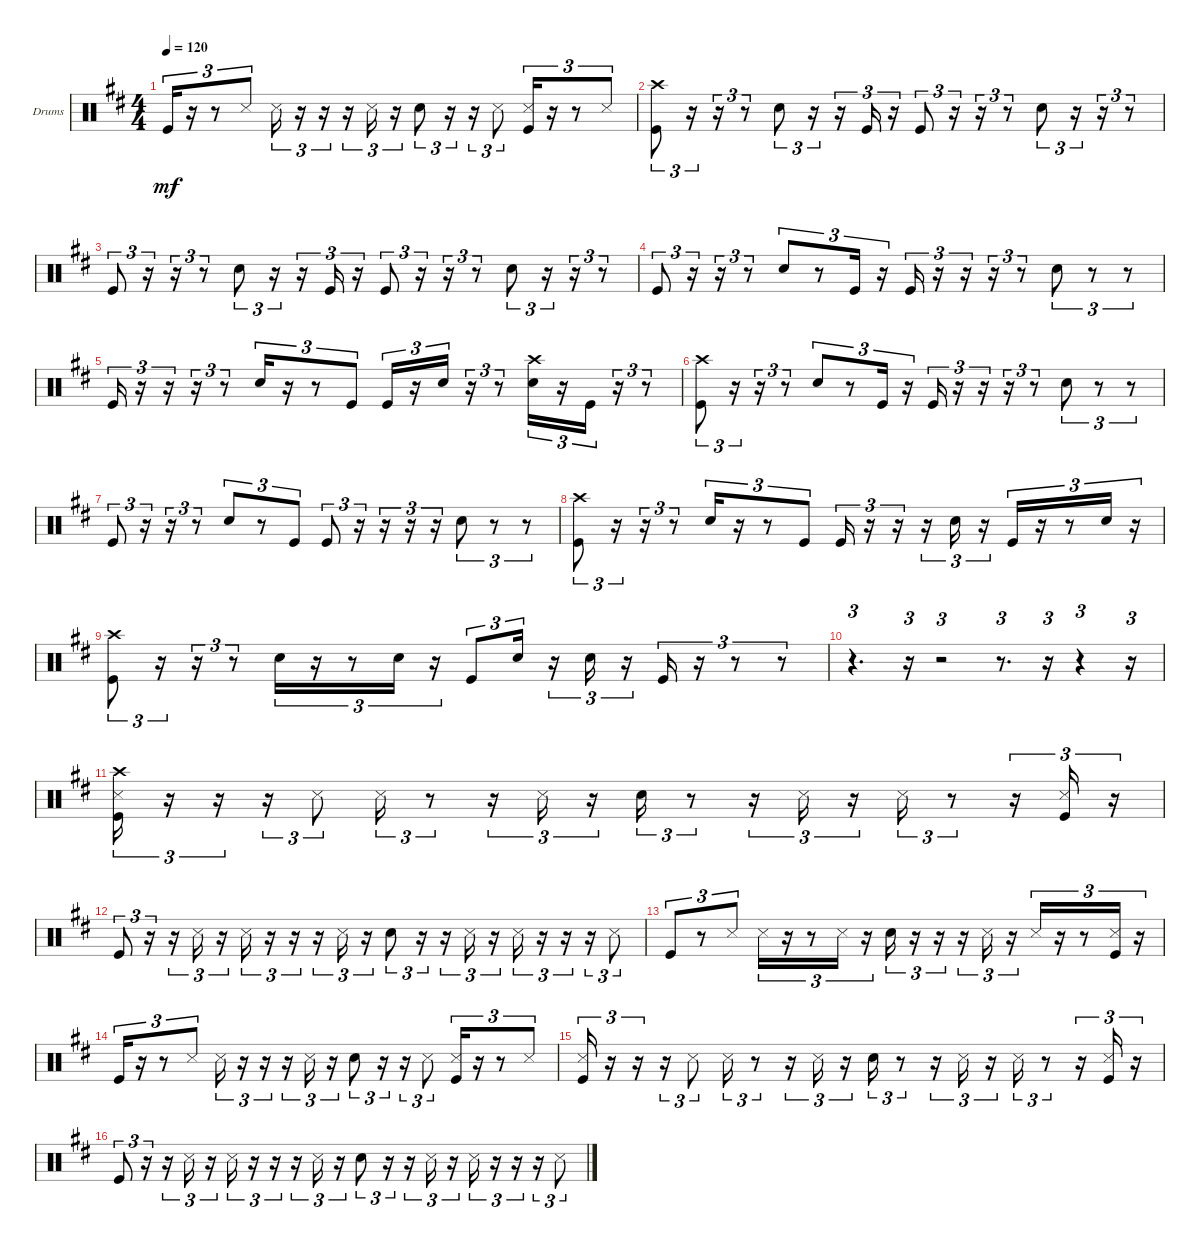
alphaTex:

\defaultSystemsLayout 4
\bracketExtendMode groupsimilarinstruments
\firstSystemTrackNameOrientation horizontal
\otherSystemsTrackNameOrientation horizontal
\track ("Drumkit" "Drums") {multiBarRest instrument percussion}
\staff {score}
\articulation defaults
\ts (4 4)
\tempo 120
\clef neutral
\ks d "Kick (hit)".16{tu (3 2) dy mf}
r.16{tu (3 2)} r.8{tu (3 2)} "Snare (side stick) 3".8{tu (3 2)} "Snare (side stick) 3".16{tu (3 2)} r.16{tu (3 2)} r.16{tu (3 2)} r.16{tu (3 2)} "Snare (side stick) 3".16{tu (3 2)} r.16{tu (3 2)} "Snare (hit) 2".8{tu (3 2)} r.16{tu (3 2)} r.16{tu (3 2)} "Snare (side stick) 3".8{tu (3 2)} ("Kick (hit)" "Snare (side stick) 3").16{tu (3 2)} r.16{tu (3 2)} r.8{tu (3 2)} "Snare (side stick) 3".8{tu (3 2)} |
("Crash high (hit)" "Kick (hit)").8{tu (3 2)} r.16{tu (3 2)} r.16{tu (3 2)} r.8{tu (3 2)} "Snare (hit) 2".8{tu (3 2)} r.16{tu (3 2)} r.16{tu (3 2)} "Kick (hit)".16{tu (3 2)} r.16{tu (3 2)} "Kick (hit)".8{tu (3 2)} r.16{tu (3 2)} r.16{tu (3 2)} r.8{tu (3 2)} "Snare (hit) 2".8{tu (3 2)} r.16{tu (3 2)} r.16{tu (3 2)} r.8{tu (3 2)} |
"Kick (hit)".8{tu (3 2)} r.16{tu (3 2)} r.16{tu (3 2)} r.8{tu (3 2)} "Snare (hit) 2".8{tu (3 2)} r.16{tu (3 2)} r.16{tu (3 2)} "Kick (hit)".16{tu (3 2)} r.16{tu (3 2)} "Kick (hit)".8{tu (3 2)} r.16{tu (3 2)} r.16{tu (3 2)} r.8{tu (3 2)} "Snare (hit) 2".8{tu (3 2)} r.16{tu (3 2)} r.16{tu (3 2)} r.8{tu (3 2)} |
"Kick (hit)".8{tu (3 2)} r.16{tu (3 2)} r.16{tu (3 2)} r.8{tu (3 2)} "Snare (hit) 2".8{tu (3 2)} r.8{tu (3 2)} "Kick (hit)".16{tu (3 2)} r.16{tu (3 2)} "Kick (hit)".16{tu (3 2)} r.16{tu (3 2)} r.16{tu (3 2)} r.16{tu (3 2)} r.8{tu (3 2)} "Snare (hit) 2".8{tu (3 2)} r.8{tu (3 2)} r.8{tu (3 2)} |
"Kick (hit)".16{tu (3 2)} r.16{tu (3 2)} r.16{tu (3 2)} r.16{tu (3 2)} r.8{tu (3 2)} "Snare (hit) 2".16{tu (3 2)} r.16{tu (3 2)} r.8{tu (3 2)} "Kick (hit)".8{tu (3 2)} "Kick (hit)".16{tu (3 2)} r.16{tu (3 2)} "Snare (hit) 2".16{tu (3 2)} r.16{tu (3 2)} r.8{tu (3 2)} ("Crash high (hit)" "Snare (hit) 2").16{tu (3 2)} r.16{tu (3 2)} "Kick (hit)".16{tu (3 2)} r.16{tu (3 2)} r.8{tu (3 2)} |
("Crash high (hit)" "Kick (hit)").8{tu (3 2)} r.16{tu (3 2)} r.16{tu (3 2)} r.8{tu (3 2)} "Snare (hit) 2".8{tu (3 2)} r.8{tu (3 2)} "Kick (hit)".16{tu (3 2)} r.16{tu (3 2)} "Kick (hit)".16{tu (3 2)} r.16{tu (3 2)} r.16{tu (3 2)} r.16{tu (3 2)} r.8{tu (3 2)} "Snare (hit) 2".8{tu (3 2)} r.8{tu (3 2)} r.8{tu (3 2)} |
"Kick (hit)".8{tu (3 2)} r.16{tu (3 2)} r.16{tu (3 2)} r.8{tu (3 2)} "Snare (hit) 2".8{tu (3 2)} r.8{tu (3 2)} "Kick (hit)".8{tu (3 2)} "Kick (hit)".8{tu (3 2)} r.16{tu (3 2)} r.16{tu (3 2)} r.16{tu (3 2)} r.16{tu (3 2)} "Snare (hit) 2".8{tu (3 2)} r.8{tu (3 2)} r.8{tu (3 2)} |
("Crash high (hit)" "Kick (hit)").8{tu (3 2)} r.16{tu (3 2)} r.16{tu (3 2)} r.8{tu (3 2)} "Snare (hit) 2".16{tu (3 2)} r.16{tu (3 2)} r.8{tu (3 2)} "Kick (hit)".8{tu (3 2)} "Kick (hit)".16{tu (3 2)} r.16{tu (3 2)} r.16{tu (3 2)} r.16{tu (3 2)} "Snare (hit) 2".16{tu (3 2)} r.16{tu (3 2)} "Kick (hit)".16{tu (3 2)} r.16{tu (3 2)} r.8{tu (3 2)} "Snare (hit) 2".16{tu (3 2)} r.16{tu (3 2)} |
("Crash high (hit)" "Kick (hit)").8{tu (3 2)} r.16{tu (3 2)} r.16{tu (3 2)} r.8{tu (3 2)} "Snare (hit) 2".16{tu (3 2)} r.16{tu (3 2)} r.8{tu (3 2)} "Snare (hit) 2".16{tu (3 2)} r.16{tu (3 2)} "Kick (hit)".8{tu (3 2)} "Snare (hit) 2".16{tu (3 2)} r.16{tu (3 2)} "Snare (hit) 2".16{tu (3 2)} r.16{tu (3 2)} "Kick (hit)".16{tu (3 2)} r.16{tu (3 2)} r.8{tu (3 2)} r.8{tu (3 2)} |
r.4{d tu (3 2)} r.16{tu (3 2)} r.2{tu (3 2)} r.8{d tu (3 2)} r.16{tu (3 2)} r.4{tu (3 2)} r.16{tu (3 2)} |
("Crash high (hit)" "Kick (hit)" "Snare (side stick) 3").16{tu (3 2)} r.16{tu (3 2)} r.16{tu (3 2)} r.16{tu (3 2)} "Snare (side stick) 3".8{tu (3 2)} "Snare (side stick) 3".16{tu (3 2)} r.8{tu (3 2)} r.16{tu (3 2)} "Snare (side stick) 3".16{tu (3 2)} r.16{tu (3 2)} "Snare (hit) 2".16{tu (3 2)} r.8{tu (3 2)} r.16{tu (3 2)} "Snare (side stick) 3".16{tu (3 2)} r.16{tu (3 2)} "Snare (side stick) 3".16{tu (3 2)} r.8{tu (3 2)} r.16{tu (3 2)} ("Kick (hit)" "Snare (side stick) 3").16{tu (3 2)} r.16{tu (3 2)} |
"Kick (hit)".8{tu (3 2)} r.16{tu (3 2)} r.16{tu (3 2)} "Snare (side stick) 3".16{tu (3 2)} r.16{tu (3 2)} "Snare (side stick) 3".16{tu (3 2)} r.16{tu (3 2)} r.16{tu (3 2)} r.16{tu (3 2)} "Snare (side stick) 3".16{tu (3 2)} r.16{tu (3 2)} "Snare (hit) 2".8{tu (3 2)} r.16{tu (3 2)} r.16{tu (3 2)} "Snare (side stick) 3".16{tu (3 2)} r.16{tu (3 2)} "Snare (side stick) 3".16{tu (3 2)} r.16{tu (3 2)} r.16{tu (3 2)} r.16{tu (3 2)} "Snare (side stick) 3".8{tu (3 2)} |
"Kick (hit)".8{tu (3 2)} r.8{tu (3 2)} "Snare (side stick) 3".8{tu (3 2)} "Snare (side stick) 3".16{tu (3 2)} r.16{tu (3 2)} r.8{tu (3 2)} "Snare (side stick) 3".16{tu (3 2)} r.16{tu (3 2)} "Snare (hit) 2".16{tu (3 2)} r.16{tu (3 2)} r.16{tu (3 2)} r.16{tu (3 2)} "Snare (side stick) 3".16{tu (3 2)} r.16{tu (3 2)} "Snare (side stick) 3".16{tu (3 2)} r.16{tu (3 2)} r.8{tu (3 2)} ("Kick (hit)" "Snare (side stick) 3").16{tu (3 2)} r.16{tu (3 2)} |
"Kick (hit)".16{tu (3 2)} r.16{tu (3 2)} r.8{tu (3 2)} "Snare (side stick) 3".8{tu (3 2)} "Snare (side stick) 3".16{tu (3 2)} r.16{tu (3 2)} r.16{tu (3 2)} r.16{tu (3 2)} "Snare (side stick) 3".16{tu (3 2)} r.16{tu (3 2)} "Snare (hit) 2".8{tu (3 2)} r.16{tu (3 2)} r.16{tu (3 2)} "Snare (side stick) 3".8{tu (3 2)} ("Kick (hit)" "Snare (side stick) 3").16{tu (3 2)} r.16{tu (3 2)} r.8{tu (3 2)} "Snare (side stick) 3".8{tu (3 2)} |
("Kick (hit)" "Snare (side stick) 3").16{tu (3 2)} r.16{tu (3 2)} r.16{tu (3 2)} r.16{tu (3 2)} "Snare (side stick) 3".8{tu (3 2)} "Snare (side stick) 3".16{tu (3 2)} r.8{tu (3 2)} r.16{tu (3 2)} "Snare (side stick) 3".16{tu (3 2)} r.16{tu (3 2)} "Snare (hit) 2".16{tu (3 2)} r.8{tu (3 2)} r.16{tu (3 2)} "Snare (side stick) 3".16{tu (3 2)} r.16{tu (3 2)} "Snare (side stick) 3".16{tu (3 2)} r.8{tu (3 2)} r.16{tu (3 2)} ("Kick (hit)" "Snare (side stick) 3").16{tu (3 2)} r.16{tu (3 2)} |
"Kick (hit)".8{tu (3 2)} r.16{tu (3 2)} r.16{tu (3 2)} "Snare (side stick) 3".16{tu (3 2)} r.16{tu (3 2)} "Snare (side stick) 3".16{tu (3 2)} r.16{tu (3 2)} r.16{tu (3 2)} r.16{tu (3 2)} "Snare (side stick) 3".16{tu (3 2)} r.16{tu (3 2)} "Snare (hit) 2".8{tu (3 2)} r.16{tu (3 2)} r.16{tu (3 2)} "Snare (side stick) 3".16{tu (3 2)} r.16{tu (3 2)} "Snare (side stick) 3".16{tu (3 2)} r.16{tu (3 2)} r.16{tu (3 2)} r.16{tu (3 2)} "Snare (side stick) 3".8{tu (3 2)}
